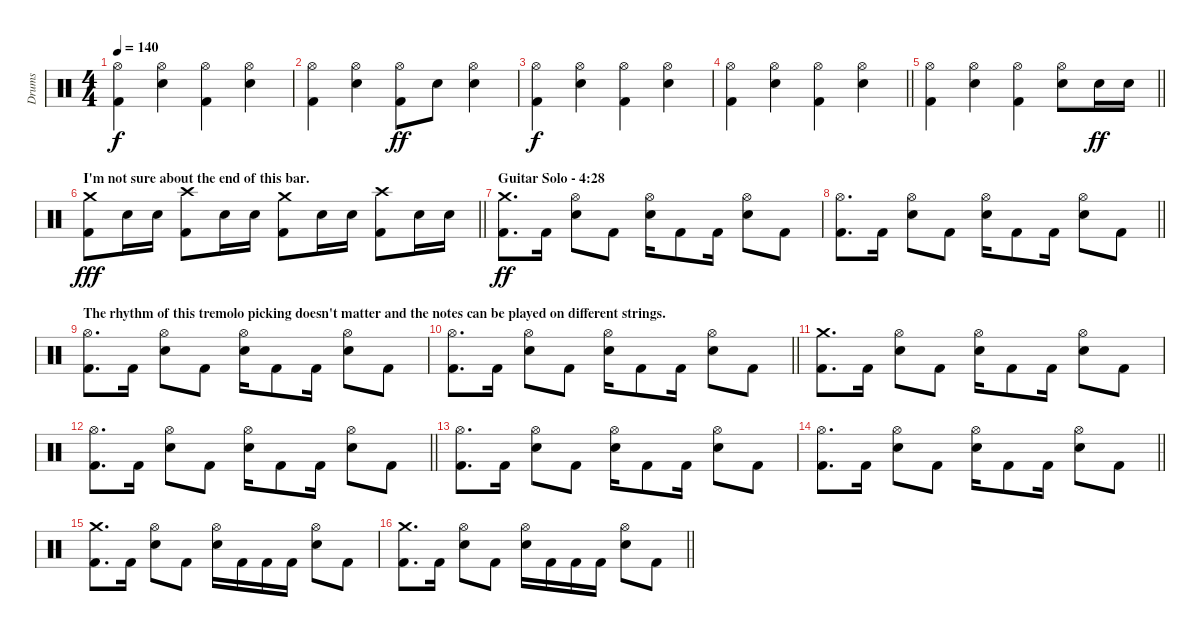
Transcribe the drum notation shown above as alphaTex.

\track ("Drums" "Drums") {instrument percussion}
\staff {score}
\articulation defaults
\ts (4 4)
\tempo 140
\clef neutral
\ks c
("Hi-Hat (open)" "Kick (hit) 2").4{dy f} ("Hi-Hat (open)" "Electric Snare (hit)").4 ("Hi-Hat (open)" "Kick (hit) 2").4 ("Hi-Hat (open)" "Electric Snare (hit)").4 |
("Hi-Hat (open)" "Kick (hit) 2").4 ("Hi-Hat (open)" "Electric Snare (hit)").4 ("Hi-Hat (open)" "Kick (hit) 2").8{dy ff} "Electric Snare (hit)".8 ("Hi-Hat (open)" "Electric Snare (hit)").4 |
("Hi-Hat (open)" "Kick (hit) 2").4{dy f} ("Hi-Hat (open)" "Electric Snare (hit)").4 ("Hi-Hat (open)" "Kick (hit) 2").4 ("Hi-Hat (open)" "Electric Snare (hit)").4 |
\barLineRight lightlight
("Hi-Hat (open)" "Kick (hit) 2").4 ("Hi-Hat (open)" "Electric Snare (hit)").4 ("Hi-Hat (open)" "Kick (hit) 2").4 ("Hi-Hat (open)" "Electric Snare (hit)").4 |
\barLineRight lightlight
("Hi-Hat (open)" "Kick (hit) 2").4 ("Hi-Hat (open)" "Electric Snare (hit)").4 ("Hi-Hat (open)" "Kick (hit) 2").4 ("Hi-Hat (open)" "Electric Snare (hit)").8 "Electric Snare (hit)".16{dy ff} "Electric Snare (hit)".16 |
\section ("" "I'm not sure about the end of this bar.")
\barLineRight lightlight
("Crash medium (hit)" "Kick (hit) 2").8{dy fff} "Electric Snare (hit)".16 "Electric Snare (hit)".16 ("Crash high (hit)" "Kick (hit) 2").8 "Electric Snare (hit)".16 "Electric Snare (hit)".16 ("Crash medium (hit)" "Kick (hit) 2").8 "Electric Snare (hit)".16 "Electric Snare (hit)".16 ("Crash high (hit)" "Kick (hit) 2").8 "Electric Snare (hit)".16 "Electric Snare (hit)".16 |
\section ("" "Guitar Solo - 4:28")
("Crash medium (hit)" "Kick (hit) 2").8{d dy ff} "Kick (hit) 2".16 ("Hi-Hat (open)" "Electric Snare (hit)").8 "Kick (hit) 2".8 ("Hi-Hat (open)" "Electric Snare (hit)").16 "Kick (hit) 2".8 "Kick (hit) 2".16 ("Hi-Hat (open)" "Electric Snare (hit)").8 "Kick (hit) 2".8 |
\barLineRight lightlight
("Hi-Hat (open)" "Kick (hit) 2").8{d} "Kick (hit) 2".16 ("Hi-Hat (open)" "Electric Snare (hit)").8 "Kick (hit) 2".8 ("Hi-Hat (open)" "Electric Snare (hit)").16 "Kick (hit) 2".8 "Kick (hit) 2".16 ("Hi-Hat (open)" "Electric Snare (hit)").8 "Kick (hit) 2".8 |
\section ("" "The rhythm of this tremolo picking doesn't matter and the notes can be played on different strings.")
("Hi-Hat (open)" "Kick (hit) 2").8{d} "Kick (hit) 2".16 ("Hi-Hat (open)" "Electric Snare (hit)").8 "Kick (hit) 2".8 ("Hi-Hat (open)" "Electric Snare (hit)").16 "Kick (hit) 2".8 "Kick (hit) 2".16 ("Hi-Hat (open)" "Electric Snare (hit)").8 "Kick (hit) 2".8 |
\barLineRight lightlight
("Hi-Hat (open)" "Kick (hit) 2").8{d} "Kick (hit) 2".16 ("Hi-Hat (open)" "Electric Snare (hit)").8 "Kick (hit) 2".8 ("Hi-Hat (open)" "Electric Snare (hit)").16 "Kick (hit) 2".8 "Kick (hit) 2".16 ("Hi-Hat (open)" "Electric Snare (hit)").8 "Kick (hit) 2".8 |
("Crash medium (hit)" "Kick (hit) 2").8{d} "Kick (hit) 2".16 ("Hi-Hat (open)" "Electric Snare (hit)").8 "Kick (hit) 2".8 ("Hi-Hat (open)" "Electric Snare (hit)").16 "Kick (hit) 2".8 "Kick (hit) 2".16 ("Hi-Hat (open)" "Electric Snare (hit)").8 "Kick (hit) 2".8 |
\barLineRight lightlight
("Hi-Hat (open)" "Kick (hit) 2").8{d} "Kick (hit) 2".16 ("Hi-Hat (open)" "Electric Snare (hit)").8 "Kick (hit) 2".8 ("Hi-Hat (open)" "Electric Snare (hit)").16 "Kick (hit) 2".8 "Kick (hit) 2".16 ("Hi-Hat (open)" "Electric Snare (hit)").8 "Kick (hit) 2".8 |
("Hi-Hat (open)" "Kick (hit) 2").8{d} "Kick (hit) 2".16 ("Hi-Hat (open)" "Electric Snare (hit)").8 "Kick (hit) 2".8 ("Hi-Hat (open)" "Electric Snare (hit)").16 "Kick (hit) 2".8 "Kick (hit) 2".16 ("Hi-Hat (open)" "Electric Snare (hit)").8 "Kick (hit) 2".8 |
\barLineRight lightlight
("Hi-Hat (open)" "Kick (hit) 2").8{d} "Kick (hit) 2".16 ("Hi-Hat (open)" "Electric Snare (hit)").8 "Kick (hit) 2".8 ("Hi-Hat (open)" "Electric Snare (hit)").16 "Kick (hit) 2".8 "Kick (hit) 2".16 ("Hi-Hat (open)" "Electric Snare (hit)").8 "Kick (hit) 2".8 |
("Crash medium (hit)" "Kick (hit) 2").8{d} "Kick (hit) 2".16 ("Hi-Hat (open)" "Electric Snare (hit)").8 "Kick (hit) 2".8 ("Hi-Hat (open)" "Electric Snare (hit)").16 "Kick (hit) 2".16 "Kick (hit) 2".16 "Kick (hit) 2".16 ("Hi-Hat (open)" "Electric Snare (hit)").8 "Kick (hit) 2".8 |
\barLineRight lightlight
("Crash medium (hit)" "Kick (hit) 2").8{d} "Kick (hit) 2".16 ("Hi-Hat (open)" "Electric Snare (hit)").8 "Kick (hit) 2".8 ("Hi-Hat (open)" "Electric Snare (hit)").16 "Kick (hit) 2".16 "Kick (hit) 2".16 "Kick (hit) 2".16 ("Hi-Hat (open)" "Electric Snare (hit)").8 "Kick (hit) 2".8
